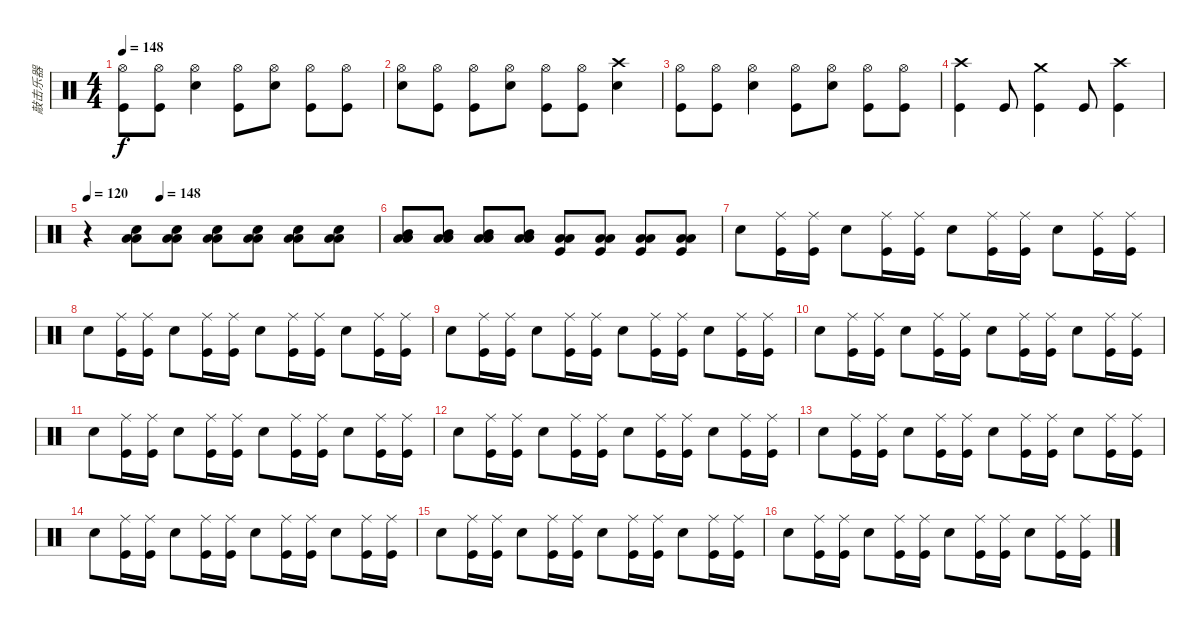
\track ("敲击乐器" "敲击乐器") {instrument percussion}
\staff {score}
\articulation defaults
\ts (4 4)
\tempo 148
\clef neutral
\ks c
("Hi-Hat (open)" "Kick (hit)").8{dy f} ("Hi-Hat (open)" "Kick (hit)").8 ("Hi-Hat (open)" "Snare (hit) 2").4 ("Hi-Hat (open)" "Kick (hit)").8 ("Hi-Hat (open)" "Snare (hit) 2").8 ("Hi-Hat (open)" "Kick (hit)").8 ("Hi-Hat (open)" "Kick (hit)").8 |
("Hi-Hat (open)" "Snare (hit) 2").8 ("Hi-Hat (open)" "Kick (hit)").8 ("Hi-Hat (open)" "Kick (hit)").8 ("Hi-Hat (open)" "Snare (hit) 2").8 ("Hi-Hat (open)" "Kick (hit)").8 ("Hi-Hat (open)" "Kick (hit)").8 ("Crash high (hit)" "Snare (hit) 2").4 |
("Hi-Hat (open)" "Kick (hit)").8 ("Hi-Hat (open)" "Kick (hit)").8 ("Hi-Hat (open)" "Snare (hit) 2").4 ("Hi-Hat (open)" "Kick (hit)").8 ("Hi-Hat (open)" "Snare (hit) 2").8 ("Hi-Hat (open)" "Kick (hit)").8 ("Hi-Hat (open)" "Kick (hit)").8 |
("Crash high (hit)" "Kick (hit)").4 "Kick (hit)".8 ("Crash medium (hit)" "Kick (hit)").4 "Kick (hit)".8 ("Crash high (hit)" "Kick (hit)").4 |
\tempo 120
\tempo (148 0.25)
r.4 ("Low Tom (hit)" "Low Floor Tom (hit)" "Snare (hit) 2").8 ("Low Tom (hit)" "Low Floor Tom (hit)" "Snare (hit) 2").8 ("Low Tom (hit)" "Low Floor Tom (hit)" "Snare (hit) 2").8 ("Low Tom (hit)" "Low Floor Tom (hit)" "Snare (hit) 2").8 ("Low Tom (hit)" "Low Floor Tom (hit)" "Snare (hit) 2").8 ("Low Tom (hit)" "Low Floor Tom (hit)" "Snare (hit) 2").8 |
("Low Tom (hit)" "Low Floor Tom (hit)" "Mid Tom (hit)").8 ("Low Tom (hit)" "Low Floor Tom (hit)" "Mid Tom (hit)").8 ("Low Tom (hit)" "Low Floor Tom (hit)" "Mid Tom (hit)").8 ("Low Tom (hit)" "Low Floor Tom (hit)" "Mid Tom (hit)").8 ("Low Tom (hit)" "Low Floor Tom (hit)" "Kick (hit)").8 ("Low Tom (hit)" "Low Floor Tom (hit)" "Kick (hit)").8 ("Low Tom (hit)" "Low Floor Tom (hit)" "Kick (hit)").8 ("Low Tom (hit)" "Low Floor Tom (hit)" "Kick (hit)").8 |
"Snare (hit) 2".8 ("Kick (hit)" "Ride (middle)").16 ("Kick (hit)" "Ride (middle)").16 "Snare (hit) 2".8 ("Kick (hit)" "Ride (middle)").16 ("Kick (hit)" "Ride (middle)").16 "Snare (hit) 2".8 ("Kick (hit)" "Ride (middle)").16 ("Kick (hit)" "Ride (middle)").16 "Snare (hit) 2".8 ("Kick (hit)" "Ride (middle)").16 ("Kick (hit)" "Ride (middle)").16 |
"Snare (hit) 2".8 ("Kick (hit)" "Ride (middle)").16 ("Kick (hit)" "Ride (middle)").16 "Snare (hit) 2".8 ("Kick (hit)" "Ride (middle)").16 ("Kick (hit)" "Ride (middle)").16 "Snare (hit) 2".8 ("Kick (hit)" "Ride (middle)").16 ("Kick (hit)" "Ride (middle)").16 "Snare (hit) 2".8 ("Kick (hit)" "Ride (middle)").16 ("Kick (hit)" "Ride (middle)").16 |
"Snare (hit) 2".8 ("Kick (hit)" "Ride (middle)").16 ("Kick (hit)" "Ride (middle)").16 "Snare (hit) 2".8 ("Kick (hit)" "Ride (middle)").16 ("Kick (hit)" "Ride (middle)").16 "Snare (hit) 2".8 ("Kick (hit)" "Ride (middle)").16 ("Kick (hit)" "Ride (middle)").16 "Snare (hit) 2".8 ("Kick (hit)" "Ride (middle)").16 ("Kick (hit)" "Ride (middle)").16 |
"Snare (hit) 2".8 ("Kick (hit)" "Ride (middle)").16 ("Kick (hit)" "Ride (middle)").16 "Snare (hit) 2".8 ("Kick (hit)" "Ride (middle)").16 ("Kick (hit)" "Ride (middle)").16 "Snare (hit) 2".8 ("Kick (hit)" "Ride (middle)").16 ("Kick (hit)" "Ride (middle)").16 "Snare (hit) 2".8 ("Kick (hit)" "Ride (middle)").16 ("Kick (hit)" "Ride (middle)").16 |
"Snare (hit) 2".8 ("Kick (hit)" "Ride (middle)").16 ("Kick (hit)" "Ride (middle)").16 "Snare (hit) 2".8 ("Kick (hit)" "Ride (middle)").16 ("Kick (hit)" "Ride (middle)").16 "Snare (hit) 2".8 ("Kick (hit)" "Ride (middle)").16 ("Kick (hit)" "Ride (middle)").16 "Snare (hit) 2".8 ("Kick (hit)" "Ride (middle)").16 ("Kick (hit)" "Ride (middle)").16 |
"Snare (hit) 2".8 ("Kick (hit)" "Ride (middle)").16 ("Kick (hit)" "Ride (middle)").16 "Snare (hit) 2".8 ("Kick (hit)" "Ride (middle)").16 ("Kick (hit)" "Ride (middle)").16 "Snare (hit) 2".8 ("Kick (hit)" "Ride (middle)").16 ("Kick (hit)" "Ride (middle)").16 "Snare (hit) 2".8 ("Kick (hit)" "Ride (middle)").16 ("Kick (hit)" "Ride (middle)").16 |
"Snare (hit) 2".8 ("Kick (hit)" "Ride (middle)").16 ("Kick (hit)" "Ride (middle)").16 "Snare (hit) 2".8 ("Kick (hit)" "Ride (middle)").16 ("Kick (hit)" "Ride (middle)").16 "Snare (hit) 2".8 ("Kick (hit)" "Ride (middle)").16 ("Kick (hit)" "Ride (middle)").16 "Snare (hit) 2".8 ("Kick (hit)" "Ride (middle)").16 ("Kick (hit)" "Ride (middle)").16 |
"Snare (hit) 2".8 ("Kick (hit)" "Ride (middle)").16 ("Kick (hit)" "Ride (middle)").16 "Snare (hit) 2".8 ("Kick (hit)" "Ride (middle)").16 ("Kick (hit)" "Ride (middle)").16 "Snare (hit) 2".8 ("Kick (hit)" "Ride (middle)").16 ("Kick (hit)" "Ride (middle)").16 "Snare (hit) 2".8 ("Kick (hit)" "Ride (middle)").16 ("Kick (hit)" "Ride (middle)").16 |
"Snare (hit) 2".8 ("Kick (hit)" "Ride (middle)").16 ("Kick (hit)" "Ride (middle)").16 "Snare (hit) 2".8 ("Kick (hit)" "Ride (middle)").16 ("Kick (hit)" "Ride (middle)").16 "Snare (hit) 2".8 ("Kick (hit)" "Ride (middle)").16 ("Kick (hit)" "Ride (middle)").16 "Snare (hit) 2".8 ("Kick (hit)" "Ride (middle)").16 ("Kick (hit)" "Ride (middle)").16 |
"Snare (hit) 2".8 ("Kick (hit)" "Ride (middle)").16 ("Kick (hit)" "Ride (middle)").16 "Snare (hit) 2".8 ("Kick (hit)" "Ride (middle)").16 ("Kick (hit)" "Ride (middle)").16 "Snare (hit) 2".8 ("Kick (hit)" "Ride (middle)").16 ("Kick (hit)" "Ride (middle)").16 "Snare (hit) 2".8 ("Kick (hit)" "Ride (middle)").16 ("Kick (hit)" "Ride (middle)").16
